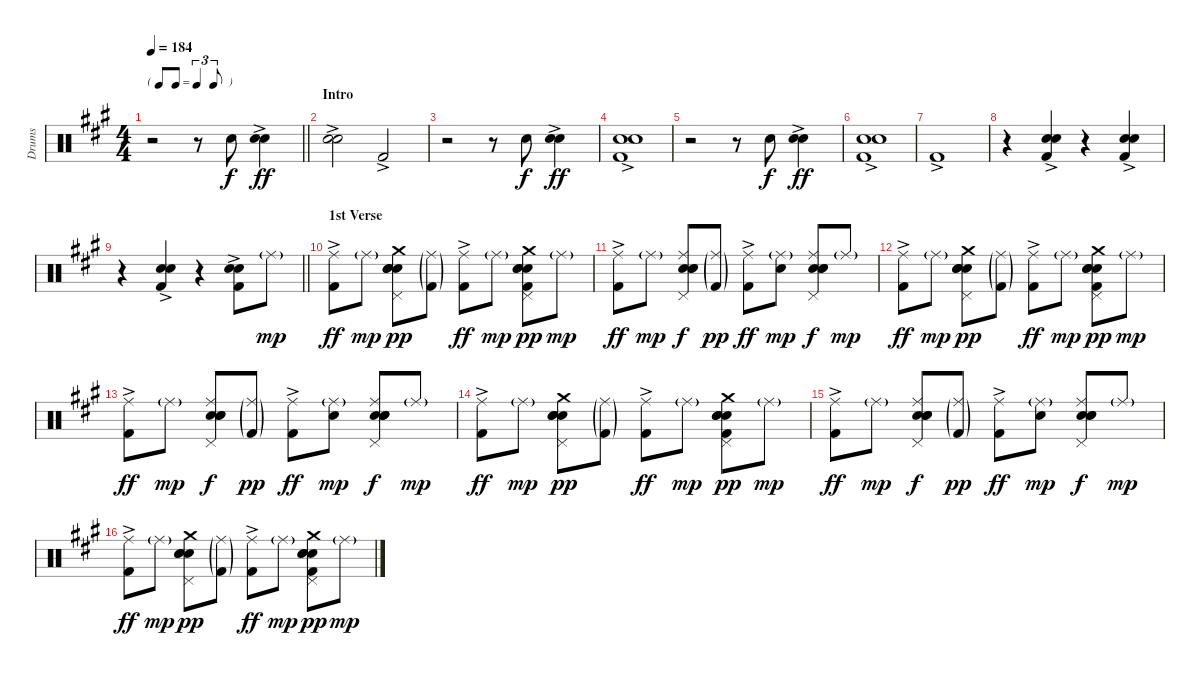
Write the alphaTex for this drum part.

\track ("Drums" "Drums") {instrument percussion}
\staff {score}
\articulation defaults
\ts (4 4)
\tf triplet8th
\tempo 184
\clef neutral
\barLineRight lightlight
\ks a
r.2{dy f} r.8 "Snare (hit) 2".8 ("Electric Snare (hit)"{ac} "Snare (hit) 2").4{dy ff} |
\section ("" "Intro")
("Electric Snare (hit)"{ac} "Snare (hit) 2").2 "Kick (hit) 2"{ac}.2 |
r.2 r.8 "Snare (hit) 2".8{dy f} ("Electric Snare (hit)"{ac} "Snare (hit) 2").4{dy ff} |
("Electric Snare (hit)"{ac} "Snare (hit) 2" "Kick (hit) 2"{ac}).1 |
r.2 r.8 "Snare (hit) 2".8{dy f} ("Electric Snare (hit)"{ac} "Snare (hit) 2").4{dy ff} |
("Electric Snare (hit)"{ac} "Snare (hit) 2" "Kick (hit) 2"{ac}).1 |
"Kick (hit) 2"{ac}.1 |
r.4 ("Electric Snare (hit)"{ac} "Snare (hit) 2" "Kick (hit) 2"{ac}).4 r.4 ("Electric Snare (hit)"{ac} "Snare (hit) 2" "Kick (hit) 2"{ac}).4 |
\barLineRight lightlight
r.4 ("Electric Snare (hit)"{ac} "Snare (hit) 2" "Kick (hit) 2"{ac}).4 r.4 ("Electric Snare (hit)"{ac} "Snare (hit) 2" "Kick (hit) 2"{ac}).8 "Ride (middle)"{g}.8{dy mp} |
\section ("" "1st Verse")
("Ride (middle)" "Kick (hit) 2"{ac}).8{dy ff} "Ride (middle)"{g}.8{dy mp} ("Hand Clap (hit)" "Pedal Hi-Hat (hit)" "Crash medium (hit)" "Electric Snare (hit)" "Snare (hit) 2").8{dy pp} ("Ride (middle)"{g} "Kick (hit) 2"{g}).8 ("Ride (middle)" "Kick (hit) 2"{ac}).8{dy ff} "Ride (middle)"{g}.8{dy mp} ("Hand Clap (hit)" "Pedal Hi-Hat (hit)" "Crash medium (hit)" "Electric Snare (hit)" "Snare (hit) 2" "Kick (hit) 2").8{dy pp} "Ride (middle)"{g}.8{dy mp} |
("Ride (middle)" "Kick (hit) 2"{ac}).8{dy ff} "Ride (middle)"{g}.8{dy mp} ("Ride (middle)" "Pedal Hi-Hat (hit)" "Hand Clap (hit)" "Electric Snare (hit)" "Snare (hit) 2").8{dy f} ("Ride (middle)"{g} "Kick (hit) 2"{g}).8{dy pp} ("Ride (middle)" "Kick (hit) 2"{ac}).8{dy ff} ("Ride (middle)"{g} "Snare (hit) 2").8{dy mp} ("Ride (middle)" "Pedal Hi-Hat (hit)" "Hand Clap (hit)" "Electric Snare (hit)" "Snare (hit) 2").8{dy f} "Ride (middle)"{g}.8{dy mp} |
("Ride (middle)" "Kick (hit) 2"{ac}).8{dy ff} "Ride (middle)"{g}.8{dy mp} ("Hand Clap (hit)" "Pedal Hi-Hat (hit)" "Crash medium (hit)" "Electric Snare (hit)" "Snare (hit) 2").8{dy pp} ("Ride (middle)"{g} "Kick (hit) 2"{g}).8 ("Ride (middle)" "Kick (hit) 2"{ac}).8{dy ff} "Ride (middle)"{g}.8{dy mp} ("Hand Clap (hit)" "Pedal Hi-Hat (hit)" "Crash medium (hit)" "Electric Snare (hit)" "Snare (hit) 2" "Kick (hit) 2").8{dy pp} "Ride (middle)"{g}.8{dy mp} |
("Ride (middle)" "Kick (hit) 2"{ac}).8{dy ff} "Ride (middle)"{g}.8{dy mp} ("Ride (middle)" "Pedal Hi-Hat (hit)" "Hand Clap (hit)" "Electric Snare (hit)" "Snare (hit) 2").8{dy f} ("Ride (middle)"{g} "Kick (hit) 2"{g}).8{dy pp} ("Ride (middle)" "Kick (hit) 2"{ac}).8{dy ff} ("Ride (middle)"{g} "Snare (hit) 2").8{dy mp} ("Ride (middle)" "Pedal Hi-Hat (hit)" "Hand Clap (hit)" "Electric Snare (hit)" "Snare (hit) 2").8{dy f} "Ride (middle)"{g}.8{dy mp} |
("Ride (middle)" "Kick (hit) 2"{ac}).8{dy ff} "Ride (middle)"{g}.8{dy mp} ("Hand Clap (hit)" "Pedal Hi-Hat (hit)" "Crash medium (hit)" "Electric Snare (hit)" "Snare (hit) 2").8{dy pp} ("Ride (middle)"{g} "Kick (hit) 2"{g}).8 ("Ride (middle)" "Kick (hit) 2"{ac}).8{dy ff} "Ride (middle)"{g}.8{dy mp} ("Hand Clap (hit)" "Pedal Hi-Hat (hit)" "Crash medium (hit)" "Electric Snare (hit)" "Snare (hit) 2" "Kick (hit) 2").8{dy pp} "Ride (middle)"{g}.8{dy mp} |
("Ride (middle)" "Kick (hit) 2"{ac}).8{dy ff} "Ride (middle)"{g}.8{dy mp} ("Ride (middle)" "Pedal Hi-Hat (hit)" "Hand Clap (hit)" "Electric Snare (hit)" "Snare (hit) 2").8{dy f} ("Ride (middle)"{g} "Kick (hit) 2"{g}).8{dy pp} ("Ride (middle)" "Kick (hit) 2"{ac}).8{dy ff} ("Ride (middle)"{g} "Snare (hit) 2").8{dy mp} ("Ride (middle)" "Pedal Hi-Hat (hit)" "Hand Clap (hit)" "Electric Snare (hit)" "Snare (hit) 2").8{dy f} "Ride (middle)"{g}.8{dy mp} |
("Ride (middle)" "Kick (hit) 2"{ac}).8{dy ff} "Ride (middle)"{g}.8{dy mp} ("Hand Clap (hit)" "Pedal Hi-Hat (hit)" "Crash medium (hit)" "Electric Snare (hit)" "Snare (hit) 2").8{dy pp} ("Ride (middle)"{g} "Kick (hit) 2"{g}).8 ("Ride (middle)" "Kick (hit) 2"{ac}).8{dy ff} "Ride (middle)"{g}.8{dy mp} ("Hand Clap (hit)" "Pedal Hi-Hat (hit)" "Crash medium (hit)" "Electric Snare (hit)" "Snare (hit) 2" "Kick (hit) 2").8{dy pp} "Ride (middle)"{g}.8{dy mp}
